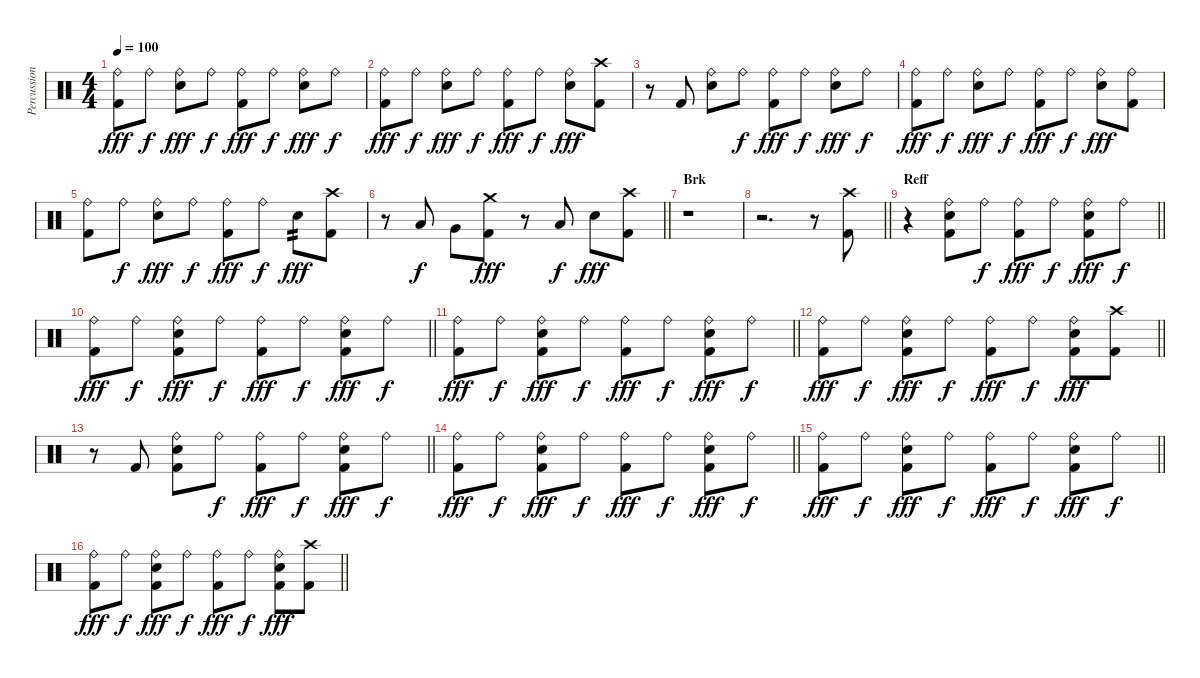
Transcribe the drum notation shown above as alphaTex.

\track ("Percussion" "Percussion") {instrument percussion}
\staff {score}
\articulation defaults
\ts (4 4)
\tempo 100
\clef neutral
\ks c
("Ride (bell)" "Kick (hit) 2").8{dy fff} "Ride (bell)".8{dy f} ("Ride (bell)" "Electric Snare (hit)").8{dy fff} "Ride (bell)".8{dy f} ("Ride (bell)" "Kick (hit) 2").8{dy fff} "Ride (bell)".8{dy f} ("Ride (bell)" "Electric Snare (hit)").8{dy fff} "Ride (bell)".8{dy f} |
("Ride (bell)" "Kick (hit) 2").8{dy fff} "Ride (bell)".8{dy f} ("Ride (bell)" "Electric Snare (hit)").8{dy fff} "Ride (bell)".8{dy f} ("Ride (bell)" "Kick (hit) 2").8{dy fff} "Ride (bell)".8{dy f} ("Ride (bell)" "Electric Snare (hit)").8{dy fff} ("Crash high (hit)" "Kick (hit) 2").8 |
r.8 "Kick (hit) 2".8 ("Ride (bell)" "Electric Snare (hit)").8 "Ride (bell)".8{dy f} ("Ride (bell)" "Kick (hit) 2").8{dy fff} "Ride (bell)".8{dy f} ("Ride (bell)" "Electric Snare (hit)").8{dy fff} "Ride (bell)".8{dy f} |
("Ride (bell)" "Kick (hit) 2").8{dy fff} "Ride (bell)".8{dy f} ("Ride (bell)" "Electric Snare (hit)").8{dy fff} "Ride (bell)".8{dy f} ("Ride (bell)" "Kick (hit) 2").8{dy fff} "Ride (bell)".8{dy f} ("Ride (bell)" "Electric Snare (hit)").8{dy fff} ("Ride (bell)" "Kick (hit) 2").8 |
("Ride (bell)" "Kick (hit) 2").8 "Ride (bell)".8{dy f} ("Ride (bell)" "Electric Snare (hit)").8{dy fff} "Ride (bell)".8{dy f} ("Ride (bell)" "Kick (hit) 2").8{dy fff} "Ride (bell)".8{dy f} "Electric Snare (hit)".8{tp 2 dy fff} ("Crash high (hit)" "Kick (hit) 2").8 |
\barLineRight lightlight
r.8 "Low Tom (hit)".8{dy f} "Very Low Tom (hit)".8 ("Crash medium (hit)" "Kick (hit) 2").8{dy fff} r.8 "Low Floor Tom (hit)".8{dy f} "Electric Snare (hit)".8{dy fff} ("Crash high (hit)" "Kick (hit) 2").8 |
\section ("" "Brk")
r.1 |
\barLineRight lightlight
r.2{d} r.8 ("Crash high (hit)" "Kick (hit) 2").8 |
\section ("" "Reff")
\barLineRight lightlight
r.4 ("Ride (bell)" "Electric Snare (hit)" "Kick (hit) 2").8 "Ride (bell)".8{dy f} ("Ride (bell)" "Kick (hit) 2").8{dy fff} "Ride (bell)".8{dy f} ("Ride (bell)" "Electric Snare (hit)" "Kick (hit) 2").8{dy fff} "Ride (bell)".8{dy f} |
\barLineRight lightlight
("Ride (bell)" "Kick (hit) 2").8{dy fff} "Ride (bell)".8{dy f} ("Ride (bell)" "Electric Snare (hit)" "Kick (hit) 2").8{dy fff} "Ride (bell)".8{dy f} ("Ride (bell)" "Kick (hit) 2").8{dy fff} "Ride (bell)".8{dy f} ("Ride (bell)" "Electric Snare (hit)" "Kick (hit) 2").8{dy fff} "Ride (bell)".8{dy f} |
\barLineRight lightlight
("Ride (bell)" "Kick (hit) 2").8{dy fff} "Ride (bell)".8{dy f} ("Ride (bell)" "Electric Snare (hit)" "Kick (hit) 2").8{dy fff} "Ride (bell)".8{dy f} ("Ride (bell)" "Kick (hit) 2").8{dy fff} "Ride (bell)".8{dy f} ("Ride (bell)" "Electric Snare (hit)" "Kick (hit) 2").8{dy fff} "Ride (bell)".8{dy f} |
\barLineRight lightlight
("Ride (bell)" "Kick (hit) 2").8{dy fff} "Ride (bell)".8{dy f} ("Ride (bell)" "Electric Snare (hit)" "Kick (hit) 2").8{dy fff} "Ride (bell)".8{dy f} ("Ride (bell)" "Kick (hit) 2").8{dy fff} "Ride (bell)".8{dy f} ("Ride (bell)" "Electric Snare (hit)" "Kick (hit) 2").8{dy fff} ("Crash high (hit)" "Kick (hit) 2").8 |
\barLineRight lightlight
r.8 "Kick (hit) 2".8 ("Ride (bell)" "Electric Snare (hit)" "Kick (hit) 2").8 "Ride (bell)".8{dy f} ("Ride (bell)" "Kick (hit) 2").8{dy fff} "Ride (bell)".8{dy f} ("Ride (bell)" "Electric Snare (hit)" "Kick (hit) 2").8{dy fff} "Ride (bell)".8{dy f} |
\barLineRight lightlight
("Ride (bell)" "Kick (hit) 2").8{dy fff} "Ride (bell)".8{dy f} ("Ride (bell)" "Electric Snare (hit)" "Kick (hit) 2").8{dy fff} "Ride (bell)".8{dy f} ("Ride (bell)" "Kick (hit) 2").8{dy fff} "Ride (bell)".8{dy f} ("Ride (bell)" "Electric Snare (hit)" "Kick (hit) 2").8{dy fff} "Ride (bell)".8{dy f} |
\barLineRight lightlight
("Ride (bell)" "Kick (hit) 2").8{dy fff} "Ride (bell)".8{dy f} ("Ride (bell)" "Electric Snare (hit)" "Kick (hit) 2").8{dy fff} "Ride (bell)".8{dy f} ("Ride (bell)" "Kick (hit) 2").8{dy fff} "Ride (bell)".8{dy f} ("Ride (bell)" "Electric Snare (hit)" "Kick (hit) 2").8{dy fff} "Ride (bell)".8{dy f} |
\barLineRight lightlight
("Ride (bell)" "Kick (hit) 2").8{dy fff} "Ride (bell)".8{dy f} ("Ride (bell)" "Electric Snare (hit)" "Kick (hit) 2").8{dy fff} "Ride (bell)".8{dy f} ("Ride (bell)" "Kick (hit) 2").8{dy fff} "Ride (bell)".8{dy f} ("Ride (bell)" "Electric Snare (hit)" "Kick (hit) 2").8{dy fff} ("Crash high (hit)" "Kick (hit) 2").8
